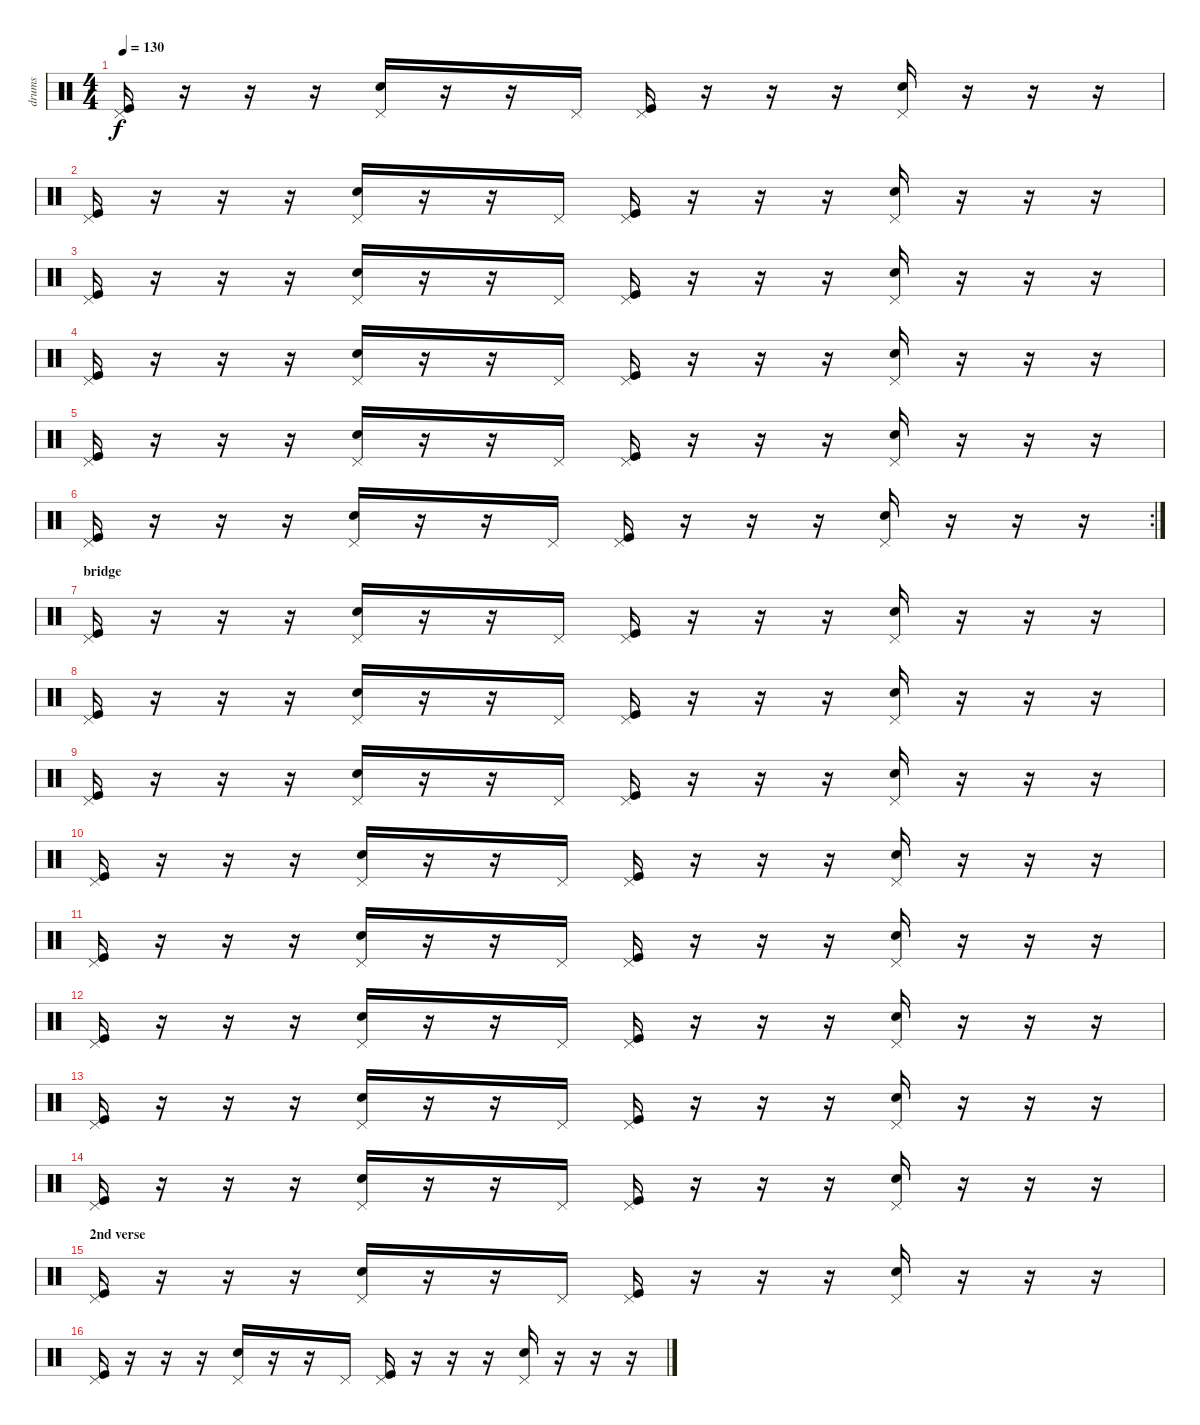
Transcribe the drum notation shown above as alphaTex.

\track ("drums" "drums") {instrument percussion}
\staff {score}
\articulation defaults
\ts (4 4)
\tempo 130
\clef neutral
\ks c
("Kick (hit)" "Pedal Hi-Hat (hit)").16{dy f} r.16 r.16 r.16 ("Electric Snare (hit)" "Pedal Hi-Hat (hit)").16 r.16 r.16 "Pedal Hi-Hat (hit)".16 ("Kick (hit)" "Pedal Hi-Hat (hit)").16 r.16 r.16 r.16 ("Electric Snare (hit)" "Pedal Hi-Hat (hit)").16 r.16 r.16 r.16 |
("Kick (hit)" "Pedal Hi-Hat (hit)").16 r.16 r.16 r.16 ("Electric Snare (hit)" "Pedal Hi-Hat (hit)").16 r.16 r.16 "Pedal Hi-Hat (hit)".16 ("Kick (hit)" "Pedal Hi-Hat (hit)").16 r.16 r.16 r.16 ("Electric Snare (hit)" "Pedal Hi-Hat (hit)").16 r.16 r.16 r.16 |
("Kick (hit)" "Pedal Hi-Hat (hit)").16 r.16 r.16 r.16 ("Electric Snare (hit)" "Pedal Hi-Hat (hit)").16 r.16 r.16 "Pedal Hi-Hat (hit)".16 ("Kick (hit)" "Pedal Hi-Hat (hit)").16 r.16 r.16 r.16 ("Electric Snare (hit)" "Pedal Hi-Hat (hit)").16 r.16 r.16 r.16 |
("Kick (hit)" "Pedal Hi-Hat (hit)").16 r.16 r.16 r.16 ("Electric Snare (hit)" "Pedal Hi-Hat (hit)").16 r.16 r.16 "Pedal Hi-Hat (hit)".16 ("Kick (hit)" "Pedal Hi-Hat (hit)").16 r.16 r.16 r.16 ("Electric Snare (hit)" "Pedal Hi-Hat (hit)").16 r.16 r.16 r.16 |
("Kick (hit)" "Pedal Hi-Hat (hit)").16 r.16 r.16 r.16 ("Electric Snare (hit)" "Pedal Hi-Hat (hit)").16 r.16 r.16 "Pedal Hi-Hat (hit)".16 ("Kick (hit)" "Pedal Hi-Hat (hit)").16 r.16 r.16 r.16 ("Electric Snare (hit)" "Pedal Hi-Hat (hit)").16 r.16 r.16 r.16 |
\rc 2
("Kick (hit)" "Pedal Hi-Hat (hit)").16 r.16 r.16 r.16 ("Electric Snare (hit)" "Pedal Hi-Hat (hit)").16 r.16 r.16 "Pedal Hi-Hat (hit)".16 ("Kick (hit)" "Pedal Hi-Hat (hit)").16 r.16 r.16 r.16 ("Electric Snare (hit)" "Pedal Hi-Hat (hit)").16 r.16 r.16 r.16 |
\section ("" "bridge")
("Kick (hit)" "Pedal Hi-Hat (hit)").16 r.16 r.16 r.16 ("Electric Snare (hit)" "Pedal Hi-Hat (hit)").16 r.16 r.16 "Pedal Hi-Hat (hit)".16 ("Kick (hit)" "Pedal Hi-Hat (hit)").16 r.16 r.16 r.16 ("Electric Snare (hit)" "Pedal Hi-Hat (hit)").16 r.16 r.16 r.16 |
("Kick (hit)" "Pedal Hi-Hat (hit)").16 r.16 r.16 r.16 ("Electric Snare (hit)" "Pedal Hi-Hat (hit)").16 r.16 r.16 "Pedal Hi-Hat (hit)".16 ("Kick (hit)" "Pedal Hi-Hat (hit)").16 r.16 r.16 r.16 ("Electric Snare (hit)" "Pedal Hi-Hat (hit)").16 r.16 r.16 r.16 |
("Kick (hit)" "Pedal Hi-Hat (hit)").16 r.16 r.16 r.16 ("Electric Snare (hit)" "Pedal Hi-Hat (hit)").16 r.16 r.16 "Pedal Hi-Hat (hit)".16 ("Kick (hit)" "Pedal Hi-Hat (hit)").16 r.16 r.16 r.16 ("Electric Snare (hit)" "Pedal Hi-Hat (hit)").16 r.16 r.16 r.16 |
("Kick (hit)" "Pedal Hi-Hat (hit)").16 r.16 r.16 r.16 ("Electric Snare (hit)" "Pedal Hi-Hat (hit)").16 r.16 r.16 "Pedal Hi-Hat (hit)".16 ("Kick (hit)" "Pedal Hi-Hat (hit)").16 r.16 r.16 r.16 ("Electric Snare (hit)" "Pedal Hi-Hat (hit)").16 r.16 r.16 r.16 |
("Kick (hit)" "Pedal Hi-Hat (hit)").16 r.16 r.16 r.16 ("Electric Snare (hit)" "Pedal Hi-Hat (hit)").16 r.16 r.16 "Pedal Hi-Hat (hit)".16 ("Kick (hit)" "Pedal Hi-Hat (hit)").16 r.16 r.16 r.16 ("Electric Snare (hit)" "Pedal Hi-Hat (hit)").16 r.16 r.16 r.16 |
("Kick (hit)" "Pedal Hi-Hat (hit)").16 r.16 r.16 r.16 ("Electric Snare (hit)" "Pedal Hi-Hat (hit)").16 r.16 r.16 "Pedal Hi-Hat (hit)".16 ("Kick (hit)" "Pedal Hi-Hat (hit)").16 r.16 r.16 r.16 ("Electric Snare (hit)" "Pedal Hi-Hat (hit)").16 r.16 r.16 r.16 |
("Kick (hit)" "Pedal Hi-Hat (hit)").16 r.16 r.16 r.16 ("Electric Snare (hit)" "Pedal Hi-Hat (hit)").16 r.16 r.16 "Pedal Hi-Hat (hit)".16 ("Kick (hit)" "Pedal Hi-Hat (hit)").16 r.16 r.16 r.16 ("Electric Snare (hit)" "Pedal Hi-Hat (hit)").16 r.16 r.16 r.16 |
("Kick (hit)" "Pedal Hi-Hat (hit)").16 r.16 r.16 r.16 ("Electric Snare (hit)" "Pedal Hi-Hat (hit)").16 r.16 r.16 "Pedal Hi-Hat (hit)".16 ("Kick (hit)" "Pedal Hi-Hat (hit)").16 r.16 r.16 r.16 ("Electric Snare (hit)" "Pedal Hi-Hat (hit)").16 r.16 r.16 r.16 |
\section ("" "2nd verse")
("Kick (hit)" "Pedal Hi-Hat (hit)").16 r.16 r.16 r.16 ("Electric Snare (hit)" "Pedal Hi-Hat (hit)").16 r.16 r.16 "Pedal Hi-Hat (hit)".16 ("Kick (hit)" "Pedal Hi-Hat (hit)").16 r.16 r.16 r.16 ("Electric Snare (hit)" "Pedal Hi-Hat (hit)").16 r.16 r.16 r.16 |
("Kick (hit)" "Pedal Hi-Hat (hit)").16 r.16 r.16 r.16 ("Electric Snare (hit)" "Pedal Hi-Hat (hit)").16 r.16 r.16 "Pedal Hi-Hat (hit)".16 ("Kick (hit)" "Pedal Hi-Hat (hit)").16 r.16 r.16 r.16 ("Electric Snare (hit)" "Pedal Hi-Hat (hit)").16 r.16 r.16 r.16
